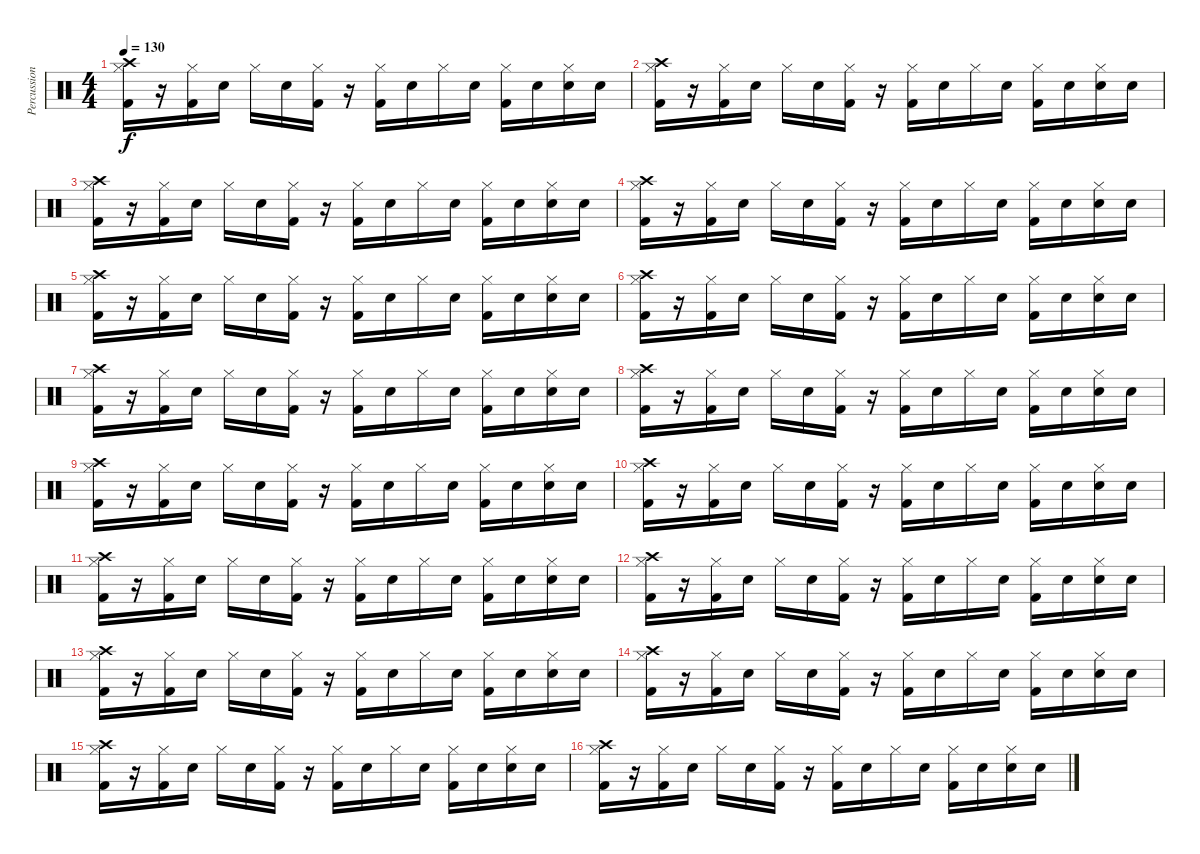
\track ("Percussion" "Percussion") {instrument percussion}
\staff {score}
\articulation defaults
\ts (4 4)
\tempo 130
\clef neutral
\ks c
("Crash high (hit)" "Hi-Hat (closed)" "Kick (hit) 2").16{dy f} r.16 ("Hi-Hat (closed)" "Kick (hit) 2").16 "Snare (hit) 2".16 "Hi-Hat (closed)".16 "Snare (hit) 2".16 ("Hi-Hat (closed)" "Kick (hit) 2").16 r.16 ("Hi-Hat (closed)" "Kick (hit) 2").16 "Snare (hit) 2".16 "Hi-Hat (closed)".16 "Snare (hit) 2".16 ("Hi-Hat (closed)" "Kick (hit) 2").16 "Snare (hit) 2".16 ("Hi-Hat (closed)" "Snare (hit) 2").16 "Snare (hit) 2".16 |
("Crash high (hit)" "Hi-Hat (closed)" "Kick (hit) 2").16 r.16 ("Hi-Hat (closed)" "Kick (hit) 2").16 "Snare (hit) 2".16 "Hi-Hat (closed)".16 "Snare (hit) 2".16 ("Hi-Hat (closed)" "Kick (hit) 2").16 r.16 ("Hi-Hat (closed)" "Kick (hit) 2").16 "Snare (hit) 2".16 "Hi-Hat (closed)".16 "Snare (hit) 2".16 ("Hi-Hat (closed)" "Kick (hit) 2").16 "Snare (hit) 2".16 ("Hi-Hat (closed)" "Snare (hit) 2").16 "Snare (hit) 2".16 |
("Crash high (hit)" "Hi-Hat (closed)" "Kick (hit) 2").16 r.16 ("Hi-Hat (closed)" "Kick (hit) 2").16 "Snare (hit) 2".16 "Hi-Hat (closed)".16 "Snare (hit) 2".16 ("Hi-Hat (closed)" "Kick (hit) 2").16 r.16 ("Hi-Hat (closed)" "Kick (hit) 2").16 "Snare (hit) 2".16 "Hi-Hat (closed)".16 "Snare (hit) 2".16 ("Hi-Hat (closed)" "Kick (hit) 2").16 "Snare (hit) 2".16 ("Hi-Hat (closed)" "Snare (hit) 2").16 "Snare (hit) 2".16 |
("Crash high (hit)" "Hi-Hat (closed)" "Kick (hit) 2").16 r.16 ("Hi-Hat (closed)" "Kick (hit) 2").16 "Snare (hit) 2".16 "Hi-Hat (closed)".16 "Snare (hit) 2".16 ("Hi-Hat (closed)" "Kick (hit) 2").16 r.16 ("Hi-Hat (closed)" "Kick (hit) 2").16 "Snare (hit) 2".16 "Hi-Hat (closed)".16 "Snare (hit) 2".16 ("Hi-Hat (closed)" "Kick (hit) 2").16 "Snare (hit) 2".16 ("Hi-Hat (closed)" "Snare (hit) 2").16 "Snare (hit) 2".16 |
("Crash high (hit)" "Hi-Hat (closed)" "Kick (hit) 2").16 r.16 ("Hi-Hat (closed)" "Kick (hit) 2").16 "Snare (hit) 2".16 "Hi-Hat (closed)".16 "Snare (hit) 2".16 ("Hi-Hat (closed)" "Kick (hit) 2").16 r.16 ("Hi-Hat (closed)" "Kick (hit) 2").16 "Snare (hit) 2".16 "Hi-Hat (closed)".16 "Snare (hit) 2".16 ("Hi-Hat (closed)" "Kick (hit) 2").16 "Snare (hit) 2".16 ("Hi-Hat (closed)" "Snare (hit) 2").16 "Snare (hit) 2".16 |
("Crash high (hit)" "Hi-Hat (closed)" "Kick (hit) 2").16 r.16 ("Hi-Hat (closed)" "Kick (hit) 2").16 "Snare (hit) 2".16 "Hi-Hat (closed)".16 "Snare (hit) 2".16 ("Hi-Hat (closed)" "Kick (hit) 2").16 r.16 ("Hi-Hat (closed)" "Kick (hit) 2").16 "Snare (hit) 2".16 "Hi-Hat (closed)".16 "Snare (hit) 2".16 ("Hi-Hat (closed)" "Kick (hit) 2").16 "Snare (hit) 2".16 ("Hi-Hat (closed)" "Snare (hit) 2").16 "Snare (hit) 2".16 |
("Crash high (hit)" "Hi-Hat (closed)" "Kick (hit) 2").16 r.16 ("Hi-Hat (closed)" "Kick (hit) 2").16 "Snare (hit) 2".16 "Hi-Hat (closed)".16 "Snare (hit) 2".16 ("Hi-Hat (closed)" "Kick (hit) 2").16 r.16 ("Hi-Hat (closed)" "Kick (hit) 2").16 "Snare (hit) 2".16 "Hi-Hat (closed)".16 "Snare (hit) 2".16 ("Hi-Hat (closed)" "Kick (hit) 2").16 "Snare (hit) 2".16 ("Hi-Hat (closed)" "Snare (hit) 2").16 "Snare (hit) 2".16 |
("Crash high (hit)" "Hi-Hat (closed)" "Kick (hit) 2").16 r.16 ("Hi-Hat (closed)" "Kick (hit) 2").16 "Snare (hit) 2".16 "Hi-Hat (closed)".16 "Snare (hit) 2".16 ("Hi-Hat (closed)" "Kick (hit) 2").16 r.16 ("Hi-Hat (closed)" "Kick (hit) 2").16 "Snare (hit) 2".16 "Hi-Hat (closed)".16 "Snare (hit) 2".16 ("Hi-Hat (closed)" "Kick (hit) 2").16 "Snare (hit) 2".16 ("Hi-Hat (closed)" "Snare (hit) 2").16 "Snare (hit) 2".16 |
("Crash high (hit)" "Hi-Hat (closed)" "Kick (hit) 2").16 r.16 ("Hi-Hat (closed)" "Kick (hit) 2").16 "Snare (hit) 2".16 "Hi-Hat (closed)".16 "Snare (hit) 2".16 ("Hi-Hat (closed)" "Kick (hit) 2").16 r.16 ("Hi-Hat (closed)" "Kick (hit) 2").16 "Snare (hit) 2".16 "Hi-Hat (closed)".16 "Snare (hit) 2".16 ("Hi-Hat (closed)" "Kick (hit) 2").16 "Snare (hit) 2".16 ("Hi-Hat (closed)" "Snare (hit) 2").16 "Snare (hit) 2".16 |
("Crash high (hit)" "Hi-Hat (closed)" "Kick (hit) 2").16 r.16 ("Hi-Hat (closed)" "Kick (hit) 2").16 "Snare (hit) 2".16 "Hi-Hat (closed)".16 "Snare (hit) 2".16 ("Hi-Hat (closed)" "Kick (hit) 2").16 r.16 ("Hi-Hat (closed)" "Kick (hit) 2").16 "Snare (hit) 2".16 "Hi-Hat (closed)".16 "Snare (hit) 2".16 ("Hi-Hat (closed)" "Kick (hit) 2").16 "Snare (hit) 2".16 ("Hi-Hat (closed)" "Snare (hit) 2").16 "Snare (hit) 2".16 |
("Crash high (hit)" "Hi-Hat (closed)" "Kick (hit) 2").16 r.16 ("Hi-Hat (closed)" "Kick (hit) 2").16 "Snare (hit) 2".16 "Hi-Hat (closed)".16 "Snare (hit) 2".16 ("Hi-Hat (closed)" "Kick (hit) 2").16 r.16 ("Hi-Hat (closed)" "Kick (hit) 2").16 "Snare (hit) 2".16 "Hi-Hat (closed)".16 "Snare (hit) 2".16 ("Hi-Hat (closed)" "Kick (hit) 2").16 "Snare (hit) 2".16 ("Hi-Hat (closed)" "Snare (hit) 2").16 "Snare (hit) 2".16 |
("Crash high (hit)" "Hi-Hat (closed)" "Kick (hit) 2").16 r.16 ("Hi-Hat (closed)" "Kick (hit) 2").16 "Snare (hit) 2".16 "Hi-Hat (closed)".16 "Snare (hit) 2".16 ("Hi-Hat (closed)" "Kick (hit) 2").16 r.16 ("Hi-Hat (closed)" "Kick (hit) 2").16 "Snare (hit) 2".16 "Hi-Hat (closed)".16 "Snare (hit) 2".16 ("Hi-Hat (closed)" "Kick (hit) 2").16 "Snare (hit) 2".16 ("Hi-Hat (closed)" "Snare (hit) 2").16 "Snare (hit) 2".16 |
("Crash high (hit)" "Hi-Hat (closed)" "Kick (hit) 2").16 r.16 ("Hi-Hat (closed)" "Kick (hit) 2").16 "Snare (hit) 2".16 "Hi-Hat (closed)".16 "Snare (hit) 2".16 ("Hi-Hat (closed)" "Kick (hit) 2").16 r.16 ("Hi-Hat (closed)" "Kick (hit) 2").16 "Snare (hit) 2".16 "Hi-Hat (closed)".16 "Snare (hit) 2".16 ("Hi-Hat (closed)" "Kick (hit) 2").16 "Snare (hit) 2".16 ("Hi-Hat (closed)" "Snare (hit) 2").16 "Snare (hit) 2".16 |
("Crash high (hit)" "Hi-Hat (closed)" "Kick (hit) 2").16 r.16 ("Hi-Hat (closed)" "Kick (hit) 2").16 "Snare (hit) 2".16 "Hi-Hat (closed)".16 "Snare (hit) 2".16 ("Hi-Hat (closed)" "Kick (hit) 2").16 r.16 ("Hi-Hat (closed)" "Kick (hit) 2").16 "Snare (hit) 2".16 "Hi-Hat (closed)".16 "Snare (hit) 2".16 ("Hi-Hat (closed)" "Kick (hit) 2").16 "Snare (hit) 2".16 ("Hi-Hat (closed)" "Snare (hit) 2").16 "Snare (hit) 2".16 |
("Crash high (hit)" "Hi-Hat (closed)" "Kick (hit) 2").16 r.16 ("Hi-Hat (closed)" "Kick (hit) 2").16 "Snare (hit) 2".16 "Hi-Hat (closed)".16 "Snare (hit) 2".16 ("Hi-Hat (closed)" "Kick (hit) 2").16 r.16 ("Hi-Hat (closed)" "Kick (hit) 2").16 "Snare (hit) 2".16 "Hi-Hat (closed)".16 "Snare (hit) 2".16 ("Hi-Hat (closed)" "Kick (hit) 2").16 "Snare (hit) 2".16 ("Hi-Hat (closed)" "Snare (hit) 2").16 "Snare (hit) 2".16 |
("Crash high (hit)" "Hi-Hat (closed)" "Kick (hit) 2").16 r.16 ("Hi-Hat (closed)" "Kick (hit) 2").16 "Snare (hit) 2".16 "Hi-Hat (closed)".16 "Snare (hit) 2".16 ("Hi-Hat (closed)" "Kick (hit) 2").16 r.16 ("Hi-Hat (closed)" "Kick (hit) 2").16 "Snare (hit) 2".16 "Hi-Hat (closed)".16 "Snare (hit) 2".16 ("Hi-Hat (closed)" "Kick (hit) 2").16 "Snare (hit) 2".16 ("Hi-Hat (closed)" "Snare (hit) 2").16 "Snare (hit) 2".16
